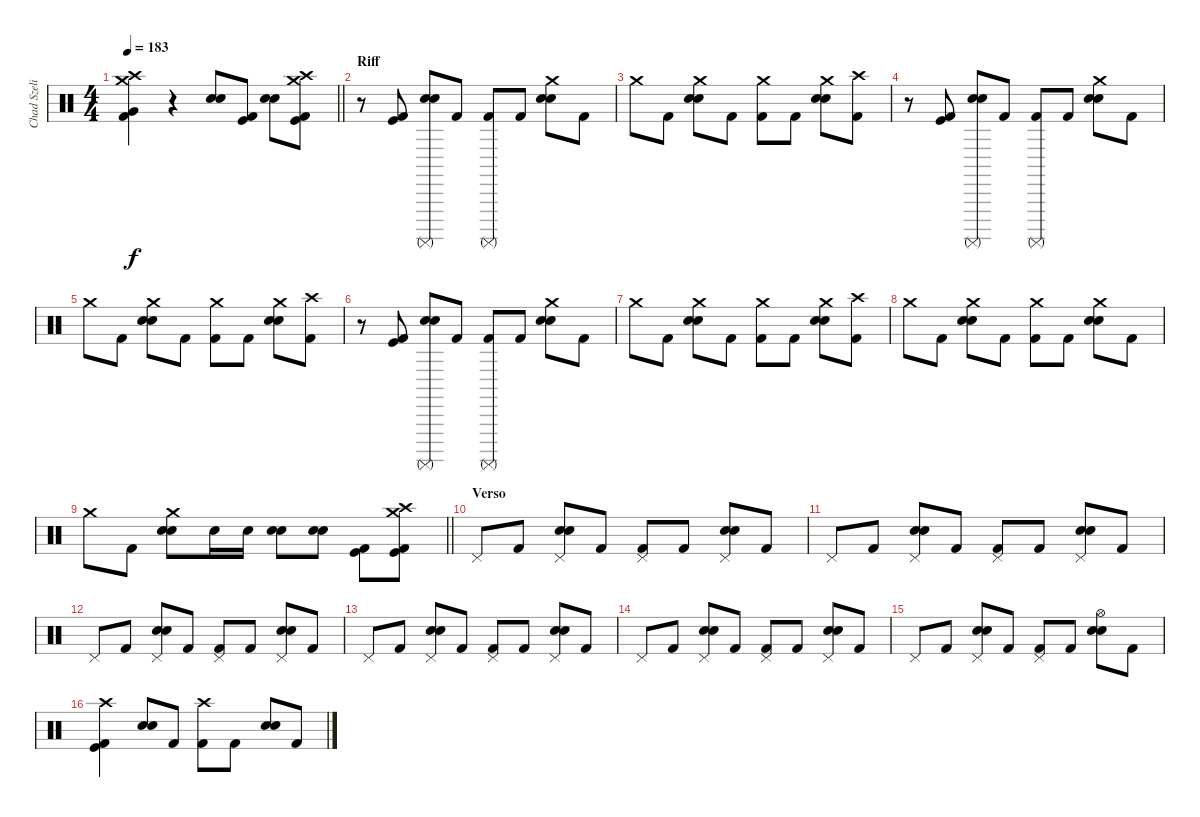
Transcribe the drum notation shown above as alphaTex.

\track ("Chad Szeliga" "Chad Szeli") {instrument percussion}
\staff {score}
\articulation defaults
\ts (4 4)
\tempo 183
\clef neutral
\barLineRight lightlight
\ks c
("Crash high (hit)" "Kick (hit) 2" "Very Low Tom (hit)" "Crash medium (hit)").4{dy f} r.4 ("Snare (hit) 2" "Snare (hit) 2").8 ("Kick (hit) 2" "Kick (hit)").8 ("Snare (hit) 2" "Snare (hit) 2").8 ("Crash high (hit)" "Kick (hit) 2" "Kick (hit)" "Crash medium (hit)").8 |
\section ("" "Riff")
r.8 ("Kick (hit) 2" "Kick (hit)").8 ("Surdo (mute)" "Snare (hit) 2" "Snare (hit) 2").8 "Kick (hit) 2".8 ("Surdo (mute)" "Kick (hit) 2").8 "Kick (hit) 2".8 ("Crash medium (hit)" "Snare (hit) 2" "Snare (hit) 2").8 "Kick (hit) 2".8 |
"Crash medium (hit)".8 "Kick (hit) 2".8 ("Crash medium (hit)" "Snare (hit) 2" "Snare (hit) 2").8 "Kick (hit) 2".8 ("Crash medium (hit)" "Kick (hit) 2").8 "Kick (hit) 2".8 ("Crash medium (hit)" "Snare (hit) 2" "Snare (hit) 2").8 ("Crash high (hit)" "Kick (hit) 2").8 |
r.8 ("Kick (hit) 2" "Kick (hit)").8 ("Surdo (mute)" "Snare (hit) 2" "Snare (hit) 2").8 "Kick (hit) 2".8 ("Surdo (mute)" "Kick (hit) 2").8 "Kick (hit) 2".8 ("Crash medium (hit)" "Snare (hit) 2" "Snare (hit) 2").8 "Kick (hit) 2".8 |
"Crash medium (hit)".8 "Kick (hit) 2".8 ("Crash medium (hit)" "Snare (hit) 2" "Snare (hit) 2").8 "Kick (hit) 2".8 ("Crash medium (hit)" "Kick (hit) 2").8 "Kick (hit) 2".8 ("Crash medium (hit)" "Snare (hit) 2" "Snare (hit) 2").8 ("Crash high (hit)" "Kick (hit) 2").8 |
r.8 ("Kick (hit) 2" "Kick (hit)").8 ("Surdo (mute)" "Snare (hit) 2" "Snare (hit) 2").8 "Kick (hit) 2".8 ("Surdo (mute)" "Kick (hit) 2").8 "Kick (hit) 2".8 ("Crash medium (hit)" "Snare (hit) 2" "Snare (hit) 2").8 "Kick (hit) 2".8 |
"Crash medium (hit)".8 "Kick (hit) 2".8 ("Crash medium (hit)" "Snare (hit) 2" "Snare (hit) 2").8 "Kick (hit) 2".8 ("Crash medium (hit)" "Kick (hit) 2").8 "Kick (hit) 2".8 ("Crash medium (hit)" "Snare (hit) 2" "Snare (hit) 2").8 ("Crash high (hit)" "Kick (hit) 2").8 |
"Crash medium (hit)".8 "Kick (hit) 2".8 ("Crash medium (hit)" "Snare (hit) 2" "Snare (hit) 2").8 "Kick (hit) 2".8 ("Crash medium (hit)" "Kick (hit) 2").8 "Kick (hit) 2".8 ("Crash medium (hit)" "Snare (hit) 2" "Snare (hit) 2").8 "Kick (hit) 2".8 |
\barLineRight lightlight "Crash medium (hit)".8 "Kick (hit) 2".8
("Crash medium (hit)" "Snare (hit) 2" "Snare (hit) 2").8 "Snare (hit) 2".16 "Snare (hit) 2".16 ("Snare (hit) 2" "Snare (hit) 2").8 ("Snare (hit) 2" "Snare (hit) 2").8 ("Kick (hit) 2" "Kick (hit)").8 ("Crash high (hit)" "Kick (hit) 2" "Kick (hit)" "Crash medium (hit)").8 |
\section ("" "Verso")
"Pedal Hi-Hat (hit)".8 "Kick (hit) 2".8 ("Snare (hit) 2" "Snare (hit) 2" "Pedal Hi-Hat (hit)").8 "Kick (hit) 2".8 ("Kick (hit) 2" "Pedal Hi-Hat (hit)").8 "Kick (hit) 2".8 ("Snare (hit) 2" "Snare (hit) 2" "Pedal Hi-Hat (hit)").8 "Kick (hit) 2".8 |
"Pedal Hi-Hat (hit)".8 "Kick (hit) 2".8 ("Snare (hit) 2" "Snare (hit) 2" "Pedal Hi-Hat (hit)").8 "Kick (hit) 2".8 ("Kick (hit) 2" "Pedal Hi-Hat (hit)").8 "Kick (hit) 2".8 ("Snare (hit) 2" "Snare (hit) 2" "Pedal Hi-Hat (hit)").8 "Kick (hit) 2".8 |
"Pedal Hi-Hat (hit)".8 "Kick (hit) 2".8 ("Snare (hit) 2" "Snare (hit) 2" "Pedal Hi-Hat (hit)").8 "Kick (hit) 2".8 ("Kick (hit) 2" "Pedal Hi-Hat (hit)").8 "Kick (hit) 2".8 ("Snare (hit) 2" "Snare (hit) 2" "Pedal Hi-Hat (hit)").8 "Kick (hit) 2".8 |
"Pedal Hi-Hat (hit)".8 "Kick (hit) 2".8 ("Snare (hit) 2" "Snare (hit) 2" "Pedal Hi-Hat (hit)").8 "Kick (hit) 2".8 ("Kick (hit) 2" "Pedal Hi-Hat (hit)").8 "Kick (hit) 2".8 ("Snare (hit) 2" "Snare (hit) 2" "Pedal Hi-Hat (hit)").8 "Kick (hit) 2".8 |
"Pedal Hi-Hat (hit)".8 "Kick (hit) 2".8 ("Snare (hit) 2" "Snare (hit) 2" "Pedal Hi-Hat (hit)").8 "Kick (hit) 2".8 ("Kick (hit) 2" "Pedal Hi-Hat (hit)").8 "Kick (hit) 2".8 ("Snare (hit) 2" "Snare (hit) 2" "Pedal Hi-Hat (hit)").8 "Kick (hit) 2".8 |
"Pedal Hi-Hat (hit)".8 "Kick (hit) 2".8 ("Snare (hit) 2" "Snare (hit) 2" "Pedal Hi-Hat (hit)").8 "Kick (hit) 2".8 ("Kick (hit) 2" "Pedal Hi-Hat (hit)").8 "Kick (hit) 2".8 ("Snare (hit) 2" "Snare (hit) 2" "Hi-Hat (open)").8 "Kick (hit) 2".8 |
("Crash high (hit)" "Kick (hit) 2" "Kick (hit)").4 ("Snare (hit) 2" "Snare (hit) 2").8 "Kick (hit) 2".8 ("Crash high (hit)" "Kick (hit) 2").8 "Kick (hit) 2".8 ("Snare (hit) 2" "Snare (hit) 2").8 "Kick (hit) 2".8
